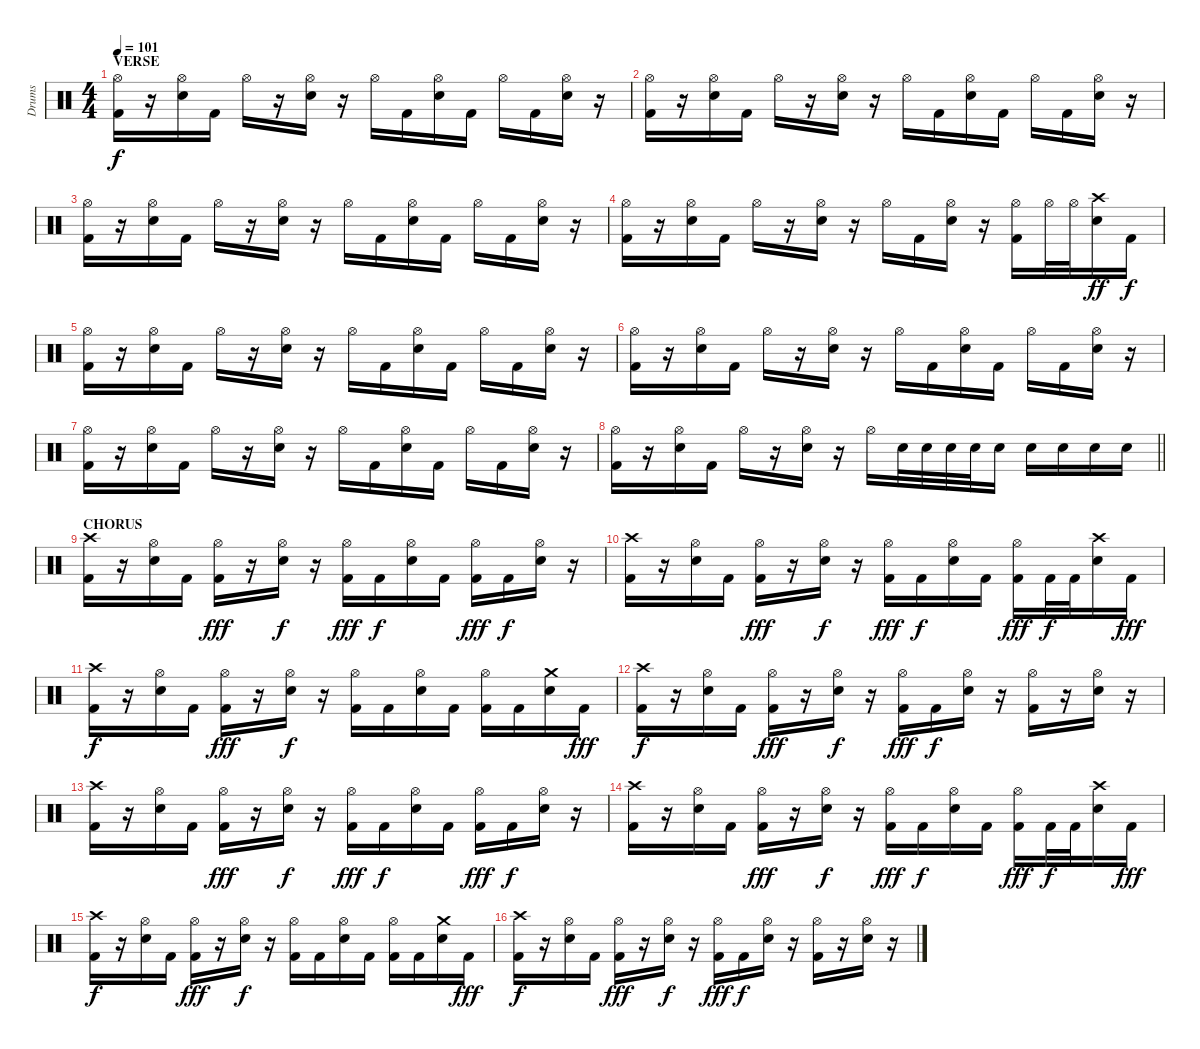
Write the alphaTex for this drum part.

\track ("Drums" "Drums") {instrument percussion}
\staff {score}
\articulation defaults
\ts (4 4)
\section ("" "VERSE")
\tempo 101
\clef neutral
\ks c
("Hi-Hat (open)" "Kick (hit) 2").16{dy f} r.16 ("Hi-Hat (open)" "Electric Snare (hit)").16 "Kick (hit) 2".16 "Hi-Hat (open)".16 r.16 ("Hi-Hat (open)" "Electric Snare (hit)").16 r.16 "Hi-Hat (open)".16 "Kick (hit) 2".16 ("Hi-Hat (open)" "Electric Snare (hit)").16 "Kick (hit) 2".16 "Hi-Hat (open)".16 "Kick (hit) 2".16 ("Hi-Hat (open)" "Electric Snare (hit)").16 r.16 |
("Hi-Hat (open)" "Kick (hit) 2").16 r.16 ("Hi-Hat (open)" "Electric Snare (hit)").16 "Kick (hit) 2".16 "Hi-Hat (open)".16 r.16 ("Hi-Hat (open)" "Electric Snare (hit)").16 r.16 "Hi-Hat (open)".16 "Kick (hit) 2".16 ("Hi-Hat (open)" "Electric Snare (hit)").16 "Kick (hit) 2".16 "Hi-Hat (open)".16 "Kick (hit) 2".16 ("Hi-Hat (open)" "Electric Snare (hit)").16 r.16 |
("Hi-Hat (open)" "Kick (hit) 2").16 r.16 ("Hi-Hat (open)" "Electric Snare (hit)").16 "Kick (hit) 2".16 "Hi-Hat (open)".16 r.16 ("Hi-Hat (open)" "Electric Snare (hit)").16 r.16 "Hi-Hat (open)".16 "Kick (hit) 2".16 ("Hi-Hat (open)" "Electric Snare (hit)").16 "Kick (hit) 2".16 "Hi-Hat (open)".16 "Kick (hit) 2".16 ("Hi-Hat (open)" "Electric Snare (hit)").16 r.16 |
("Hi-Hat (open)" "Kick (hit) 2").16 r.16 ("Hi-Hat (open)" "Electric Snare (hit)").16 "Kick (hit) 2".16 "Hi-Hat (open)".16 r.16 ("Hi-Hat (open)" "Electric Snare (hit)").16 r.16 "Hi-Hat (open)".16 "Kick (hit) 2".16 ("Hi-Hat (open)" "Electric Snare (hit)").16 r.16 ("Hi-Hat (open)" "Kick (hit) 2").16 "Hi-Hat (open)".32 "Hi-Hat (open)".32 ("Crash high (hit)" "Electric Snare (hit)").16{dy ff} "Kick (hit) 2".16{dy f} |
("Hi-Hat (open)" "Kick (hit) 2").16 r.16 ("Hi-Hat (open)" "Electric Snare (hit)").16 "Kick (hit) 2".16 "Hi-Hat (open)".16 r.16 ("Hi-Hat (open)" "Electric Snare (hit)").16 r.16 "Hi-Hat (open)".16 "Kick (hit) 2".16 ("Hi-Hat (open)" "Electric Snare (hit)").16 "Kick (hit) 2".16 "Hi-Hat (open)".16 "Kick (hit) 2".16 ("Hi-Hat (open)" "Electric Snare (hit)").16 r.16 |
("Hi-Hat (open)" "Kick (hit) 2").16 r.16 ("Hi-Hat (open)" "Electric Snare (hit)").16 "Kick (hit) 2".16 "Hi-Hat (open)".16 r.16 ("Hi-Hat (open)" "Electric Snare (hit)").16 r.16 "Hi-Hat (open)".16 "Kick (hit) 2".16 ("Hi-Hat (open)" "Electric Snare (hit)").16 "Kick (hit) 2".16 "Hi-Hat (open)".16 "Kick (hit) 2".16 ("Hi-Hat (open)" "Electric Snare (hit)").16 r.16 |
("Hi-Hat (open)" "Kick (hit) 2").16 r.16 ("Hi-Hat (open)" "Electric Snare (hit)").16 "Kick (hit) 2".16 "Hi-Hat (open)".16 r.16 ("Hi-Hat (open)" "Electric Snare (hit)").16 r.16 "Hi-Hat (open)".16 "Kick (hit) 2".16 ("Hi-Hat (open)" "Electric Snare (hit)").16 "Kick (hit) 2".16 "Hi-Hat (open)".16 "Kick (hit) 2".16 ("Hi-Hat (open)" "Electric Snare (hit)").16 r.16 |
\barLineRight lightlight
("Hi-Hat (open)" "Kick (hit) 2").16 r.16 ("Hi-Hat (open)" "Electric Snare (hit)").16 "Kick (hit) 2".16 "Hi-Hat (open)".16 r.16 ("Hi-Hat (open)" "Electric Snare (hit)").16 r.16 "Hi-Hat (open)".16 "Electric Snare (hit)".32 "Electric Snare (hit)".32 "Electric Snare (hit)".32 "Electric Snare (hit)".32 "Electric Snare (hit)".16 "Electric Snare (hit)".16 "Electric Snare (hit)".16 "Electric Snare (hit)".16 "Electric Snare (hit)".16 |
\section ("" "CHORUS")
("Crash high (hit)" "Kick (hit) 2").16 r.16 ("Hi-Hat (open)" "Electric Snare (hit)").16 "Kick (hit) 2".16 ("Hi-Hat (open)" "Kick (hit) 2").16{dy fff} r.16 ("Hi-Hat (open)" "Electric Snare (hit)").16{dy f} r.16 ("Hi-Hat (open)" "Kick (hit) 2").16{dy fff} "Kick (hit) 2".16{dy f} ("Hi-Hat (open)" "Electric Snare (hit)").16 "Kick (hit) 2".16 ("Hi-Hat (open)" "Kick (hit) 2").16{dy fff} "Kick (hit) 2".16{dy f} ("Hi-Hat (open)" "Electric Snare (hit)").16 r.16 |
("Crash high (hit)" "Kick (hit) 2").16 r.16 ("Hi-Hat (open)" "Electric Snare (hit)").16 "Kick (hit) 2".16 ("Hi-Hat (open)" "Kick (hit) 2").16{dy fff} r.16 ("Hi-Hat (open)" "Electric Snare (hit)").16{dy f} r.16 ("Hi-Hat (open)" "Kick (hit) 2").16{dy fff} "Kick (hit) 2".16{dy f} ("Hi-Hat (open)" "Electric Snare (hit)").16 "Kick (hit) 2".16 ("Hi-Hat (open)" "Kick (hit) 2").16{dy fff} "Kick (hit) 2".32{dy f} "Kick (hit) 2".32 ("Crash high (hit)" "Electric Snare (hit)").16 "Kick (hit) 2".16{dy fff} |
("Crash high (hit)" "Kick (hit) 2").16{dy f} r.16 ("Hi-Hat (open)" "Electric Snare (hit)").16 "Kick (hit) 2".16 ("Hi-Hat (open)" "Kick (hit) 2").16{dy fff} r.16 ("Hi-Hat (open)" "Electric Snare (hit)").16{dy f} r.16 ("Hi-Hat (open)" "Kick (hit) 2").16 "Kick (hit) 2".16 ("Hi-Hat (open)" "Electric Snare (hit)").16 "Kick (hit) 2".16 ("Hi-Hat (open)" "Kick (hit) 2").16 "Kick (hit) 2".16 ("Crash medium (hit)" "Electric Snare (hit)").16 "Kick (hit) 2".16{dy fff} |
("Crash high (hit)" "Kick (hit) 2").16{dy f} r.16 ("Hi-Hat (open)" "Electric Snare (hit)").16 "Kick (hit) 2".16 ("Hi-Hat (open)" "Kick (hit) 2").16{dy fff} r.16 ("Hi-Hat (open)" "Electric Snare (hit)").16{dy f} r.16 ("Hi-Hat (open)" "Kick (hit) 2").16{dy fff} "Kick (hit) 2".16{dy f} ("Hi-Hat (open)" "Electric Snare (hit)").16 r.16 ("Hi-Hat (open)" "Kick (hit) 2").16 r.16 ("Hi-Hat (open)" "Electric Snare (hit)").16 r.16 |
("Crash high (hit)" "Kick (hit) 2").16 r.16 ("Hi-Hat (open)" "Electric Snare (hit)").16 "Kick (hit) 2".16 ("Hi-Hat (open)" "Kick (hit) 2").16{dy fff} r.16 ("Hi-Hat (open)" "Electric Snare (hit)").16{dy f} r.16 ("Hi-Hat (open)" "Kick (hit) 2").16{dy fff} "Kick (hit) 2".16{dy f} ("Hi-Hat (open)" "Electric Snare (hit)").16 "Kick (hit) 2".16 ("Hi-Hat (open)" "Kick (hit) 2").16{dy fff} "Kick (hit) 2".16{dy f} ("Hi-Hat (open)" "Electric Snare (hit)").16 r.16 |
("Crash high (hit)" "Kick (hit) 2").16 r.16 ("Hi-Hat (open)" "Electric Snare (hit)").16 "Kick (hit) 2".16 ("Hi-Hat (open)" "Kick (hit) 2").16{dy fff} r.16 ("Hi-Hat (open)" "Electric Snare (hit)").16{dy f} r.16 ("Hi-Hat (open)" "Kick (hit) 2").16{dy fff} "Kick (hit) 2".16{dy f} ("Hi-Hat (open)" "Electric Snare (hit)").16 "Kick (hit) 2".16 ("Hi-Hat (open)" "Kick (hit) 2").16{dy fff} "Kick (hit) 2".32{dy f} "Kick (hit) 2".32 ("Crash high (hit)" "Electric Snare (hit)").16 "Kick (hit) 2".16{dy fff} |
("Crash high (hit)" "Kick (hit) 2").16{dy f} r.16 ("Hi-Hat (open)" "Electric Snare (hit)").16 "Kick (hit) 2".16 ("Hi-Hat (open)" "Kick (hit) 2").16{dy fff} r.16 ("Hi-Hat (open)" "Electric Snare (hit)").16{dy f} r.16 ("Hi-Hat (open)" "Kick (hit) 2").16 "Kick (hit) 2".16 ("Hi-Hat (open)" "Electric Snare (hit)").16 "Kick (hit) 2".16 ("Hi-Hat (open)" "Kick (hit) 2").16 "Kick (hit) 2".16 ("Crash medium (hit)" "Electric Snare (hit)").16 "Kick (hit) 2".16{dy fff} |
("Crash high (hit)" "Kick (hit) 2").16{dy f} r.16 ("Hi-Hat (open)" "Electric Snare (hit)").16 "Kick (hit) 2".16 ("Hi-Hat (open)" "Kick (hit) 2").16{dy fff} r.16 ("Hi-Hat (open)" "Electric Snare (hit)").16{dy f} r.16 ("Hi-Hat (open)" "Kick (hit) 2").16{dy fff} "Kick (hit) 2".16{dy f} ("Hi-Hat (open)" "Electric Snare (hit)").16 r.16 ("Hi-Hat (open)" "Kick (hit) 2").16 r.16 ("Hi-Hat (open)" "Electric Snare (hit)").16 r.16
